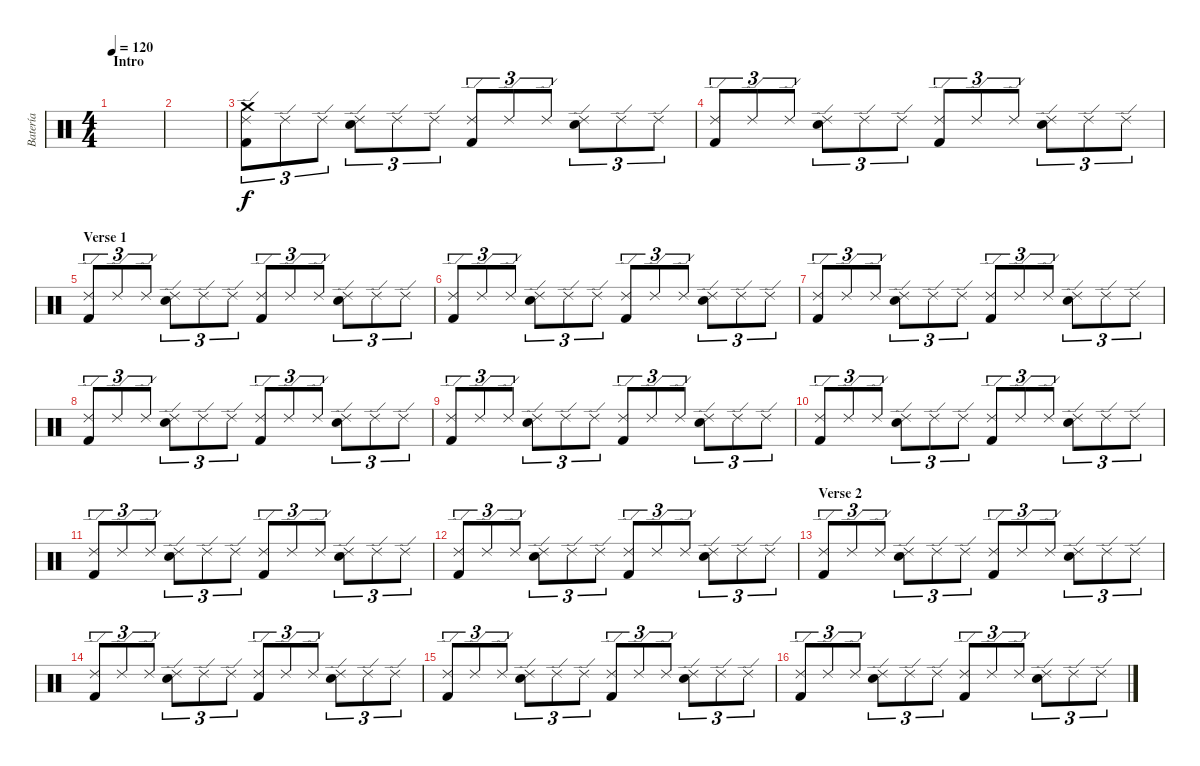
\track ("Batería" "Batería") {instrument percussion}
\staff {score}
\articulation defaults
\ts (4 4)
\section ("" "Intro")
\tempo 120
\clef neutral
\ks c
|
|
("Ride (edge) 2" "Kick (hit) 2" "Crash medium (hit)").8{tu (3 2)} "Ride (edge) 2".8{tu (3 2)} "Ride (edge) 2".8{tu (3 2)} ("Ride (edge) 2" "Electric Snare (hit)").8{tu (3 2)} "Ride (edge) 2".8{tu (3 2)} "Ride (edge) 2".8{tu (3 2)} ("Ride (edge) 2" "Kick (hit) 2").8{tu (3 2)} "Ride (edge) 2".8{tu (3 2)} "Ride (edge) 2".8{tu (3 2)} ("Ride (edge) 2" "Electric Snare (hit)").8{tu (3 2)} "Ride (edge) 2".8{tu (3 2)} "Ride (edge) 2".8{tu (3 2)} |
("Ride (edge) 2" "Kick (hit) 2").8{tu (3 2)} "Ride (edge) 2".8{tu (3 2)} "Ride (edge) 2".8{tu (3 2)} ("Ride (edge) 2" "Electric Snare (hit)").8{tu (3 2)} "Ride (edge) 2".8{tu (3 2)} "Ride (edge) 2".8{tu (3 2)} ("Ride (edge) 2" "Kick (hit) 2").8{tu (3 2)} "Ride (edge) 2".8{tu (3 2)} "Ride (edge) 2".8{tu (3 2)} ("Ride (edge) 2" "Electric Snare (hit)").8{tu (3 2)} "Ride (edge) 2".8{tu (3 2)} "Ride (edge) 2".8{tu (3 2)} |
\section ("" "Verse 1")
("Ride (edge) 2" "Kick (hit) 2").8{tu (3 2)} "Ride (edge) 2".8{tu (3 2)} "Ride (edge) 2".8{tu (3 2)} ("Ride (edge) 2" "Electric Snare (hit)").8{tu (3 2)} "Ride (edge) 2".8{tu (3 2)} "Ride (edge) 2".8{tu (3 2)} ("Ride (edge) 2" "Kick (hit) 2").8{tu (3 2)} "Ride (edge) 2".8{tu (3 2)} "Ride (edge) 2".8{tu (3 2)} ("Ride (edge) 2" "Electric Snare (hit)").8{tu (3 2)} "Ride (edge) 2".8{tu (3 2)} "Ride (edge) 2".8{tu (3 2)} |
("Ride (edge) 2" "Kick (hit) 2").8{tu (3 2)} "Ride (edge) 2".8{tu (3 2)} "Ride (edge) 2".8{tu (3 2)} ("Ride (edge) 2" "Electric Snare (hit)").8{tu (3 2)} "Ride (edge) 2".8{tu (3 2)} "Ride (edge) 2".8{tu (3 2)} ("Ride (edge) 2" "Kick (hit) 2").8{tu (3 2)} "Ride (edge) 2".8{tu (3 2)} "Ride (edge) 2".8{tu (3 2)} ("Ride (edge) 2" "Electric Snare (hit)").8{tu (3 2)} "Ride (edge) 2".8{tu (3 2)} "Ride (edge) 2".8{tu (3 2)} |
("Ride (edge) 2" "Kick (hit) 2").8{tu (3 2)} "Ride (edge) 2".8{tu (3 2)} "Ride (edge) 2".8{tu (3 2)} ("Ride (edge) 2" "Electric Snare (hit)").8{tu (3 2)} "Ride (edge) 2".8{tu (3 2)} "Ride (edge) 2".8{tu (3 2)} ("Ride (edge) 2" "Kick (hit) 2").8{tu (3 2)} "Ride (edge) 2".8{tu (3 2)} "Ride (edge) 2".8{tu (3 2)} ("Ride (edge) 2" "Electric Snare (hit)").8{tu (3 2)} "Ride (edge) 2".8{tu (3 2)} "Ride (edge) 2".8{tu (3 2)} |
("Ride (edge) 2" "Kick (hit) 2").8{tu (3 2)} "Ride (edge) 2".8{tu (3 2)} "Ride (edge) 2".8{tu (3 2)} ("Ride (edge) 2" "Electric Snare (hit)").8{tu (3 2)} "Ride (edge) 2".8{tu (3 2)} "Ride (edge) 2".8{tu (3 2)} ("Ride (edge) 2" "Kick (hit) 2").8{tu (3 2)} "Ride (edge) 2".8{tu (3 2)} "Ride (edge) 2".8{tu (3 2)} ("Ride (edge) 2" "Electric Snare (hit)").8{tu (3 2)} "Ride (edge) 2".8{tu (3 2)} "Ride (edge) 2".8{tu (3 2)} |
("Ride (edge) 2" "Kick (hit) 2").8{tu (3 2)} "Ride (edge) 2".8{tu (3 2)} "Ride (edge) 2".8{tu (3 2)} ("Ride (edge) 2" "Electric Snare (hit)").8{tu (3 2)} "Ride (edge) 2".8{tu (3 2)} "Ride (edge) 2".8{tu (3 2)} ("Ride (edge) 2" "Kick (hit) 2").8{tu (3 2)} "Ride (edge) 2".8{tu (3 2)} "Ride (edge) 2".8{tu (3 2)} ("Ride (edge) 2" "Electric Snare (hit)").8{tu (3 2)} "Ride (edge) 2".8{tu (3 2)} "Ride (edge) 2".8{tu (3 2)} |
("Ride (edge) 2" "Kick (hit) 2").8{tu (3 2)} "Ride (edge) 2".8{tu (3 2)} "Ride (edge) 2".8{tu (3 2)} ("Ride (edge) 2" "Electric Snare (hit)").8{tu (3 2)} "Ride (edge) 2".8{tu (3 2)} "Ride (edge) 2".8{tu (3 2)} ("Ride (edge) 2" "Kick (hit) 2").8{tu (3 2)} "Ride (edge) 2".8{tu (3 2)} "Ride (edge) 2".8{tu (3 2)} ("Ride (edge) 2" "Electric Snare (hit)").8{tu (3 2)} "Ride (edge) 2".8{tu (3 2)} "Ride (edge) 2".8{tu (3 2)} |
("Ride (edge) 2" "Kick (hit) 2").8{tu (3 2)} "Ride (edge) 2".8{tu (3 2)} "Ride (edge) 2".8{tu (3 2)} ("Ride (edge) 2" "Electric Snare (hit)").8{tu (3 2)} "Ride (edge) 2".8{tu (3 2)} "Ride (edge) 2".8{tu (3 2)} ("Ride (edge) 2" "Kick (hit) 2").8{tu (3 2)} "Ride (edge) 2".8{tu (3 2)} "Ride (edge) 2".8{tu (3 2)} ("Ride (edge) 2" "Electric Snare (hit)").8{tu (3 2)} "Ride (edge) 2".8{tu (3 2)} "Ride (edge) 2".8{tu (3 2)} |
("Ride (edge) 2" "Kick (hit) 2").8{tu (3 2)} "Ride (edge) 2".8{tu (3 2)} "Ride (edge) 2".8{tu (3 2)} ("Ride (edge) 2" "Electric Snare (hit)").8{tu (3 2)} "Ride (edge) 2".8{tu (3 2)} "Ride (edge) 2".8{tu (3 2)} ("Ride (edge) 2" "Kick (hit) 2").8{tu (3 2)} "Ride (edge) 2".8{tu (3 2)} "Ride (edge) 2".8{tu (3 2)} ("Ride (edge) 2" "Electric Snare (hit)").8{tu (3 2)} "Ride (edge) 2".8{tu (3 2)} "Ride (edge) 2".8{tu (3 2)} |
\section ("" "Verse 2")
("Ride (edge) 2" "Kick (hit) 2").8{tu (3 2)} "Ride (edge) 2".8{tu (3 2)} "Ride (edge) 2".8{tu (3 2)} ("Ride (edge) 2" "Electric Snare (hit)").8{tu (3 2)} "Ride (edge) 2".8{tu (3 2)} "Ride (edge) 2".8{tu (3 2)} ("Ride (edge) 2" "Kick (hit) 2").8{tu (3 2)} "Ride (edge) 2".8{tu (3 2)} "Ride (edge) 2".8{tu (3 2)} ("Ride (edge) 2" "Electric Snare (hit)").8{tu (3 2)} "Ride (edge) 2".8{tu (3 2)} "Ride (edge) 2".8{tu (3 2)} |
("Ride (edge) 2" "Kick (hit) 2").8{tu (3 2)} "Ride (edge) 2".8{tu (3 2)} "Ride (edge) 2".8{tu (3 2)} ("Ride (edge) 2" "Electric Snare (hit)").8{tu (3 2)} "Ride (edge) 2".8{tu (3 2)} "Ride (edge) 2".8{tu (3 2)} ("Ride (edge) 2" "Kick (hit) 2").8{tu (3 2)} "Ride (edge) 2".8{tu (3 2)} "Ride (edge) 2".8{tu (3 2)} ("Ride (edge) 2" "Electric Snare (hit)").8{tu (3 2)} "Ride (edge) 2".8{tu (3 2)} "Ride (edge) 2".8{tu (3 2)} |
("Ride (edge) 2" "Kick (hit) 2").8{tu (3 2)} "Ride (edge) 2".8{tu (3 2)} "Ride (edge) 2".8{tu (3 2)} ("Ride (edge) 2" "Electric Snare (hit)").8{tu (3 2)} "Ride (edge) 2".8{tu (3 2)} "Ride (edge) 2".8{tu (3 2)} ("Ride (edge) 2" "Kick (hit) 2").8{tu (3 2)} "Ride (edge) 2".8{tu (3 2)} "Ride (edge) 2".8{tu (3 2)} ("Ride (edge) 2" "Electric Snare (hit)").8{tu (3 2)} "Ride (edge) 2".8{tu (3 2)} "Ride (edge) 2".8{tu (3 2)} |
("Ride (edge) 2" "Kick (hit) 2").8{tu (3 2)} "Ride (edge) 2".8{tu (3 2)} "Ride (edge) 2".8{tu (3 2)} ("Ride (edge) 2" "Electric Snare (hit)").8{tu (3 2)} "Ride (edge) 2".8{tu (3 2)} "Ride (edge) 2".8{tu (3 2)} ("Ride (edge) 2" "Kick (hit) 2").8{tu (3 2)} "Ride (edge) 2".8{tu (3 2)} "Ride (edge) 2".8{tu (3 2)} ("Ride (edge) 2" "Electric Snare (hit)").8{tu (3 2)} "Ride (edge) 2".8{tu (3 2)} "Ride (edge) 2".8{tu (3 2)}
